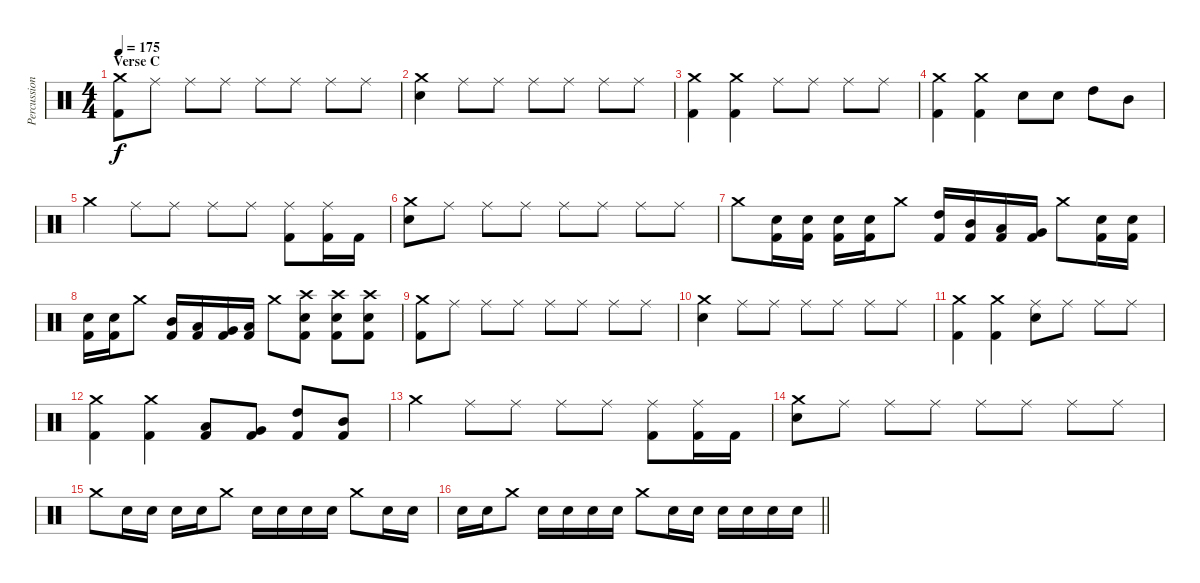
\track ("Percussion" "Percussion") {instrument percussion}
\staff {score}
\articulation defaults
\ts (4 4)
\section ("" "Verse C")
\tempo 175
\clef neutral
\ks c
("Crash medium (hit)" "Kick (hit) 2").8{dy f} "Ride (middle)".8 "Ride (middle)".8 "Ride (middle)".8 "Ride (middle)".8 "Ride (middle)".8 "Ride (middle)".8 "Ride (middle)".8 |
("Crash medium (hit)" "Electric Snare (hit)").4 "Ride (middle)".8 "Ride (middle)".8 "Ride (middle)".8 "Ride (middle)".8 "Ride (middle)".8 "Ride (middle)".8 |
("Crash medium (hit)" "Kick (hit) 2").4 ("Crash medium (hit)" "Kick (hit) 2").4 "Ride (middle)".8 "Ride (middle)".8 "Ride (middle)".8 "Ride (middle)".8 |
("Crash medium (hit)" "Kick (hit) 2").4 ("Crash medium (hit)" "Kick (hit) 2").4 "Electric Snare (hit)".8 "Electric Snare (hit)".8 "High Tom (hit)".8 "Mid Tom (hit)".8 |
"Crash medium (hit)".4 "Ride (middle)".8 "Ride (middle)".8 "Ride (middle)".8 "Ride (middle)".8 ("Ride (middle)" "Kick (hit) 2").8 ("Ride (middle)" "Kick (hit) 2").16 "Kick (hit) 2".16 |
("Crash medium (hit)" "Electric Snare (hit)").8 "Ride (middle)".8 "Ride (middle)".8 "Ride (middle)".8 "Ride (middle)".8 "Ride (middle)".8 "Ride (middle)".8 "Ride (middle)".8 |
"Crash medium (hit)".8 ("Electric Snare (hit)" "Kick (hit) 2").16 ("Electric Snare (hit)" "Kick (hit) 2").16 ("Electric Snare (hit)" "Kick (hit) 2").16 ("Electric Snare (hit)" "Kick (hit) 2").16 "Crash medium (hit)".8 ("High Tom (hit)" "Kick (hit) 2").16 ("Mid Tom (hit)" "Kick (hit) 2").16 ("Low Tom (hit)" "Kick (hit) 2").16 ("Very Low Tom (hit)" "Kick (hit) 2").16 "Crash medium (hit)".8 ("Electric Snare (hit)" "Kick (hit) 2").16 ("Electric Snare (hit)" "Kick (hit) 2").16 |
("Electric Snare (hit)" "Kick (hit) 2").16 ("Electric Snare (hit)" "Kick (hit) 2").16 "Crash medium (hit)".8 ("Mid Tom (hit)" "Kick (hit) 2").16 ("Low Tom (hit)" "Kick (hit) 2").16 ("Very Low Tom (hit)" "Kick (hit) 2").16 ("Low Floor Tom (hit)" "Kick (hit) 2").16 "Crash medium (hit)".8 ("Crash high (hit)" "Electric Snare (hit)" "Kick (hit) 2").8 ("Crash high (hit)" "Electric Snare (hit)" "Kick (hit) 2").8 ("Crash high (hit)" "Electric Snare (hit)" "Kick (hit) 2").8 |
("Crash medium (hit)" "Kick (hit) 2").8 "Ride (middle)".8 "Ride (middle)".8 "Ride (middle)".8 "Ride (middle)".8 "Ride (middle)".8 "Ride (middle)".8 "Ride (middle)".8 |
("Crash medium (hit)" "Electric Snare (hit)").4 "Ride (middle)".8 "Ride (middle)".8 "Ride (middle)".8 "Ride (middle)".8 "Ride (middle)".8 "Ride (middle)".8 |
("Crash medium (hit)" "Kick (hit) 2").4 ("Crash medium (hit)" "Kick (hit) 2").4 ("Ride (middle)" "Electric Snare (hit)").8 "Ride (middle)".8 "Ride (middle)".8 "Ride (middle)".8 |
("Crash medium (hit)" "Kick (hit) 2").4 ("Crash medium (hit)" "Kick (hit) 2").4 ("Low Floor Tom (hit)" "Kick (hit) 2").8 ("Very Low Tom (hit)" "Kick (hit) 2").8 ("High Tom (hit)" "Kick (hit) 2").8 ("Mid Tom (hit)" "Kick (hit) 2").8 |
"Crash medium (hit)".4 "Ride (middle)".8 "Ride (middle)".8 "Ride (middle)".8 "Ride (middle)".8 ("Ride (middle)" "Kick (hit) 2").8 ("Ride (middle)" "Kick (hit) 2").16 "Kick (hit) 2".16 |
("Crash medium (hit)" "Electric Snare (hit)").8 "Ride (middle)".8 "Ride (middle)".8 "Ride (middle)".8 "Ride (middle)".8 "Ride (middle)".8 "Ride (middle)".8 "Ride (middle)".8 |
"Crash medium (hit)".8 "Electric Snare (hit)".16 "Electric Snare (hit)".16 "Electric Snare (hit)".16 "Electric Snare (hit)".16 "Crash medium (hit)".8 "Electric Snare (hit)".16 "Electric Snare (hit)".16 "Electric Snare (hit)".16 "Electric Snare (hit)".16 "Crash medium (hit)".8 "Electric Snare (hit)".16 "Electric Snare (hit)".16 |
\barLineRight lightlight "Electric Snare (hit)".16 "Electric Snare (hit)".16 "Crash medium (hit)".8 "Electric Snare (hit)".16 "Electric Snare (hit)".16 "Electric Snare (hit)".16 "Electric Snare (hit)".16 "Crash medium (hit)".8 "Electric Snare (hit)".16 "Electric Snare (hit)".16 "Electric Snare (hit)".16 "Electric Snare (hit)".16 "Electric Snare (hit)".16 "Electric Snare (hit)".16
